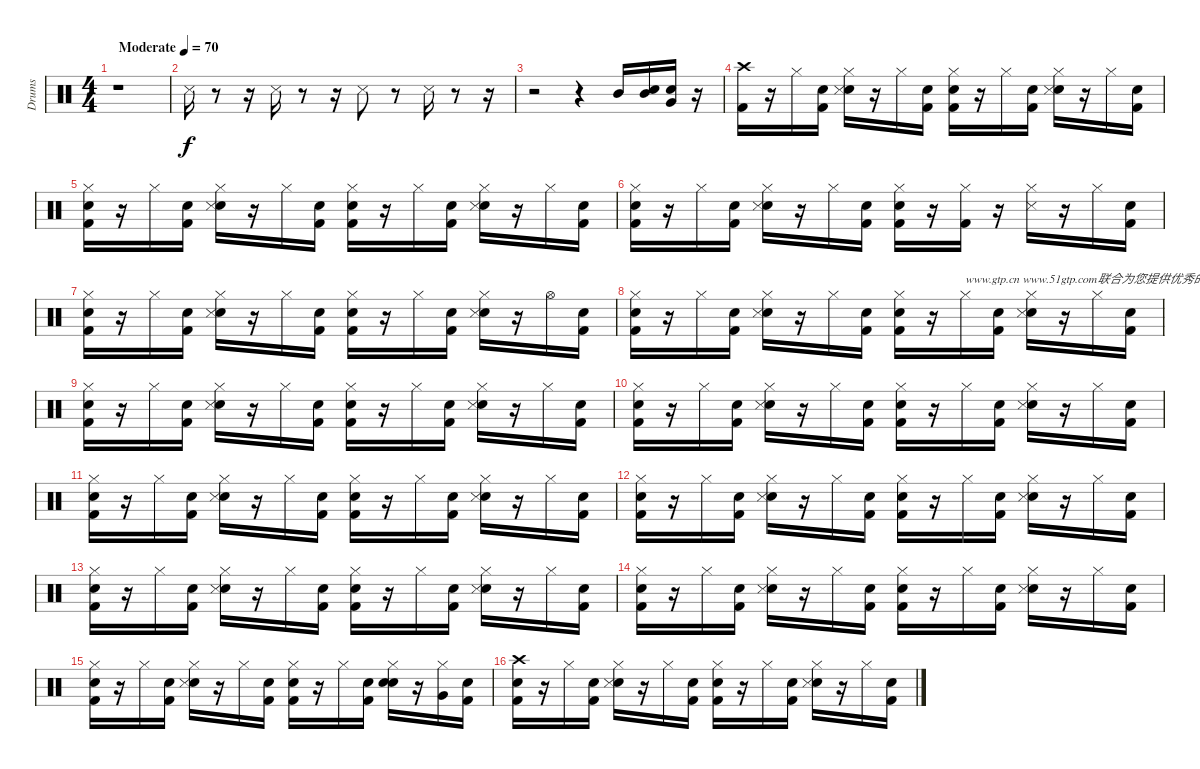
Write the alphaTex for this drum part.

\track ("Drums" "Drums") {instrument percussion}
\staff {score}
\articulation defaults
\ts (4 4)
\tempo (70 "Moderate")
\clef neutral
\ks c
r.1{dy f} |
"Snare (side stick) 3".16 r.8 r.16 "Snare (side stick) 3".16 r.8 r.16 "Snare (side stick) 3".8 r.8 "Snare (side stick) 3".16 r.8 r.16 |
r.2 r.4 "Mid Tom (hit)".16 ("Snare (hit)" "Mid Tom (hit)").16 ("Snare (hit)" "Very Low Tom (hit)").16 r.16 |
("Kick (hit) 2" "Crash high (hit)").16 r.16 "Hi-Hat (closed)".16 ("Snare (hit)" "Kick (hit) 2").16 ("Snare (hit)" "Snare (side stick) 3" "Hi-Hat (closed)").16 r.16 "Hi-Hat (closed)".16 ("Snare (hit)" "Kick (hit) 2").16 ("Snare (hit)" "Kick (hit) 2" "Hi-Hat (closed)").16 r.16 "Hi-Hat (closed)".16 ("Snare (hit)" "Kick (hit) 2").16 ("Snare (hit)" "Snare (side stick) 3" "Hi-Hat (closed)").16 r.16 "Hi-Hat (closed)".16 ("Snare (hit)" "Kick (hit) 2").16 |
("Snare (hit)" "Kick (hit) 2" "Hi-Hat (closed)").16 r.16 "Hi-Hat (closed)".16 ("Snare (hit)" "Kick (hit) 2").16 ("Snare (hit)" "Snare (side stick) 3" "Hi-Hat (closed)").16 r.16 "Hi-Hat (closed)".16 ("Snare (hit)" "Kick (hit) 2").16 ("Snare (hit)" "Kick (hit) 2" "Hi-Hat (closed)").16 r.16 "Hi-Hat (closed)".16 ("Snare (hit)" "Kick (hit) 2").16 ("Snare (hit)" "Snare (side stick) 3" "Hi-Hat (closed)").16 r.16 "Hi-Hat (closed)".16 ("Snare (hit)" "Kick (hit) 2").16 |
("Snare (hit)" "Kick (hit) 2" "Hi-Hat (closed)").16 r.16 "Hi-Hat (closed)".16 ("Snare (hit)" "Kick (hit) 2").16 ("Snare (hit)" "Snare (side stick) 3" "Hi-Hat (closed)").16 r.16 "Hi-Hat (closed)".16 ("Snare (hit)" "Kick (hit) 2").16 ("Snare (hit)" "Kick (hit) 2" "Hi-Hat (closed)").16 r.16 ("Kick (hit) 2" "Hi-Hat (closed)").16 r.16 ("Snare (side stick) 3" "Hi-Hat (closed)").16 r.16 "Hi-Hat (closed)".16 ("Snare (hit)" "Kick (hit) 2").16 |
("Snare (hit)" "Kick (hit) 2" "Hi-Hat (closed)").16 r.16 "Hi-Hat (closed)".16 ("Snare (hit)" "Kick (hit) 2").16 ("Snare (hit)" "Snare (side stick) 3" "Hi-Hat (closed)").16 r.16 "Hi-Hat (closed)".16 ("Snare (hit)" "Kick (hit) 2").16 ("Snare (hit)" "Kick (hit) 2" "Hi-Hat (closed)").16 r.16 "Hi-Hat (closed)".16 ("Snare (hit)" "Kick (hit) 2").16 ("Snare (hit)" "Snare (side stick) 3" "Hi-Hat (closed)").16 r.16 "Hi-Hat (open)".16 ("Snare (hit)" "Kick (hit) 2").16 |
("Snare (hit)" "Kick (hit) 2" "Hi-Hat (closed)").16 r.16 "Hi-Hat (closed)".16 ("Snare (hit)" "Kick (hit) 2").16 ("Snare (hit)" "Snare (side stick) 3" "Hi-Hat (closed)").16 r.16 "Hi-Hat (closed)".16 ("Snare (hit)" "Kick (hit) 2").16 ("Snare (hit)" "Kick (hit) 2" "Hi-Hat (closed)").16 r.16 "Hi-Hat (closed)".16{txt "www.gtp.cn www.51gtp.com联合为您提供优秀的GTP!"} ("Snare (hit)" "Kick (hit) 2").16 ("Snare (hit)" "Snare (side stick) 3" "Hi-Hat (closed)").16 r.16 "Hi-Hat (closed)".16 ("Snare (hit)" "Kick (hit) 2").16 |
("Snare (hit)" "Kick (hit) 2" "Hi-Hat (closed)").16 r.16 "Hi-Hat (closed)".16 ("Snare (hit)" "Kick (hit) 2").16 ("Snare (hit)" "Snare (side stick) 3" "Hi-Hat (closed)").16 r.16 "Hi-Hat (closed)".16 ("Snare (hit)" "Kick (hit) 2").16 ("Snare (hit)" "Kick (hit) 2" "Hi-Hat (closed)").16 r.16 "Hi-Hat (closed)".16 ("Snare (hit)" "Kick (hit) 2").16 ("Snare (hit)" "Snare (side stick) 3" "Hi-Hat (closed)").16 r.16 "Hi-Hat (closed)".16 ("Snare (hit)" "Kick (hit) 2").16 |
("Snare (hit)" "Kick (hit) 2" "Hi-Hat (closed)").16 r.16 "Hi-Hat (closed)".16 ("Snare (hit)" "Kick (hit) 2").16 ("Snare (hit)" "Snare (side stick) 3" "Hi-Hat (closed)").16 r.16 "Hi-Hat (closed)".16 ("Snare (hit)" "Kick (hit) 2").16 ("Snare (hit)" "Kick (hit) 2" "Hi-Hat (closed)").16 r.16 "Hi-Hat (closed)".16 ("Snare (hit)" "Kick (hit) 2").16 ("Snare (hit)" "Snare (side stick) 3" "Hi-Hat (closed)").16 r.16 "Hi-Hat (closed)".16 ("Snare (hit)" "Kick (hit) 2").16 |
("Snare (hit)" "Kick (hit) 2" "Hi-Hat (closed)").16 r.16 "Hi-Hat (closed)".16 ("Snare (hit)" "Kick (hit) 2").16 ("Snare (hit)" "Snare (side stick) 3" "Hi-Hat (closed)").16 r.16 "Hi-Hat (closed)".16 ("Snare (hit)" "Kick (hit) 2").16 ("Snare (hit)" "Kick (hit) 2" "Hi-Hat (closed)").16 r.16 "Hi-Hat (closed)".16 ("Snare (hit)" "Kick (hit) 2").16 ("Snare (hit)" "Snare (side stick) 3" "Hi-Hat (closed)").16 r.16 "Hi-Hat (closed)".16 ("Snare (hit)" "Kick (hit) 2").16 |
("Snare (hit)" "Kick (hit) 2" "Hi-Hat (closed)").16 r.16 "Hi-Hat (closed)".16 ("Snare (hit)" "Kick (hit) 2").16 ("Snare (hit)" "Snare (side stick) 3" "Hi-Hat (closed)").16 r.16 "Hi-Hat (closed)".16 ("Snare (hit)" "Kick (hit) 2").16 ("Snare (hit)" "Kick (hit) 2" "Hi-Hat (closed)").16 r.16 "Hi-Hat (closed)".16 ("Snare (hit)" "Kick (hit) 2").16 ("Snare (hit)" "Snare (side stick) 3" "Hi-Hat (closed)").16 r.16 "Hi-Hat (closed)".16 ("Snare (hit)" "Kick (hit) 2").16 |
("Snare (hit)" "Kick (hit) 2" "Hi-Hat (closed)").16 r.16 "Hi-Hat (closed)".16 ("Snare (hit)" "Kick (hit) 2").16 ("Snare (hit)" "Snare (side stick) 3" "Hi-Hat (closed)").16 r.16 "Hi-Hat (closed)".16 ("Snare (hit)" "Kick (hit) 2").16 ("Snare (hit)" "Kick (hit) 2" "Hi-Hat (closed)").16 r.16 "Hi-Hat (closed)".16 ("Snare (hit)" "Kick (hit) 2").16 ("Snare (hit)" "Snare (side stick) 3" "Hi-Hat (closed)").16 r.16 "Hi-Hat (closed)".16 ("Snare (hit)" "Kick (hit) 2").16 |
("Snare (hit)" "Kick (hit) 2" "Hi-Hat (closed)").16 r.16 "Hi-Hat (closed)".16 ("Snare (hit)" "Kick (hit) 2").16 ("Snare (hit)" "Snare (side stick) 3" "Hi-Hat (closed)").16 r.16 "Hi-Hat (closed)".16 ("Snare (hit)" "Kick (hit) 2").16 ("Snare (hit)" "Kick (hit) 2" "Hi-Hat (closed)").16 r.16 "Hi-Hat (closed)".16 ("Snare (hit)" "Kick (hit) 2").16 ("Snare (hit)" "Snare (side stick) 3" "Hi-Hat (closed)").16 r.16 "Hi-Hat (closed)".16 ("Snare (hit)" "Kick (hit) 2").16 |
("Snare (hit)" "Kick (hit) 2" "Hi-Hat (closed)").16 r.16 "Hi-Hat (closed)".16 ("Snare (hit)" "Kick (hit) 2").16 ("Snare (hit)" "Snare (side stick) 3" "Hi-Hat (closed)").16 r.16 "Hi-Hat (closed)".16 ("Snare (hit)" "Kick (hit) 2").16 ("Snare (hit)" "Kick (hit) 2" "Hi-Hat (closed)").16 r.16 "Hi-Hat (closed)".16 ("Snare (hit)" "Kick (hit) 2").16 ("Snare (hit)" "Snare (hit) 2" "Hi-Hat (closed)").16 r.16 ("Hi-Hat (closed)" "Very Low Tom (hit)").16 ("Snare (hit)" "Kick (hit) 2").16 |
("Snare (hit)" "Kick (hit) 2" "Crash high (hit)").16 r.16 "Hi-Hat (closed)".16 ("Snare (hit)" "Kick (hit) 2").16 ("Snare (hit)" "Snare (side stick) 3" "Hi-Hat (closed)").16 r.16 "Hi-Hat (closed)".16 ("Snare (hit)" "Kick (hit) 2").16 ("Snare (hit)" "Kick (hit) 2" "Hi-Hat (closed)").16 r.16 "Hi-Hat (closed)".16 ("Snare (hit)" "Kick (hit) 2").16 ("Snare (hit)" "Snare (side stick) 3" "Hi-Hat (closed)").16 r.16 "Hi-Hat (closed)".16 ("Snare (hit)" "Kick (hit) 2").16
